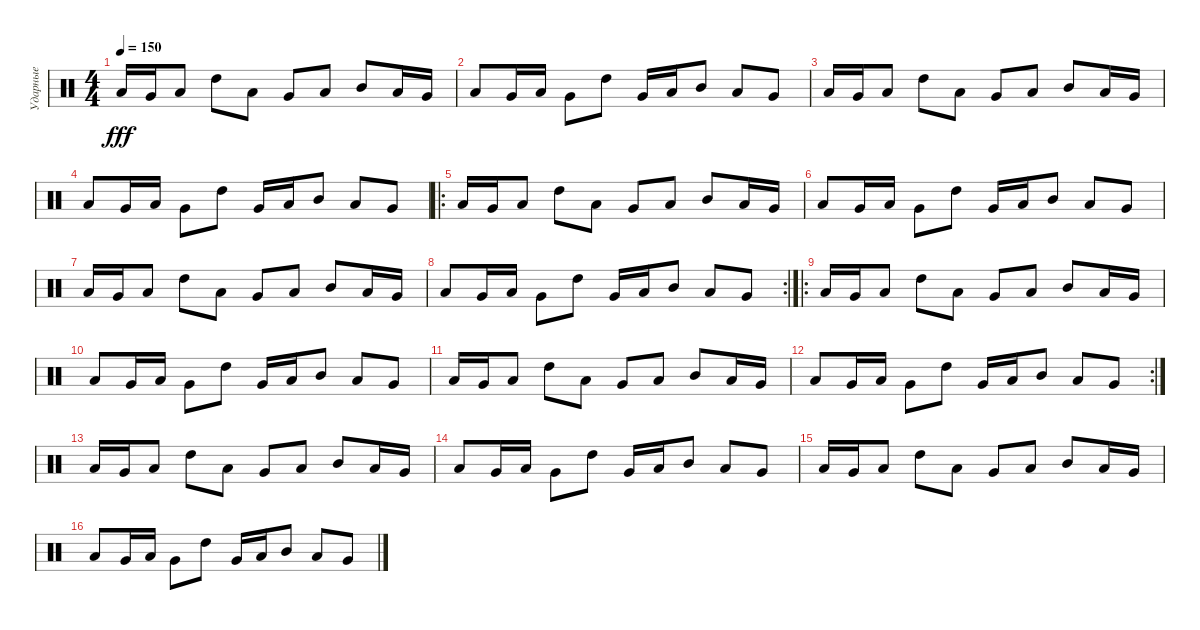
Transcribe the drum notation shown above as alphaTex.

\track ("Ударные" "Ударные") {instrument percussion}
\staff {score}
\articulation defaults
\ts (4 4)
\tempo 150
\clef neutral
\ks c "Low Floor Tom (hit)".16{dy fff} "Very Low Tom (hit)".16 "Low Tom (hit)".8 "High Tom (hit)".8 "Low Tom (hit)".8 "Very Low Tom (hit)".8 "Low Floor Tom (hit)".8 "Mid Tom (hit)".8 "Low Tom (hit)".16 "Very Low Tom (hit)".16
|
"Low Floor Tom (hit)".8 "Very Low Tom (hit)".16 "Low Tom (hit)".16 "Very Low Tom (hit)".8 "High Tom (hit)".8 "Very Low Tom (hit)".16 "Low Floor Tom (hit)".16 "Mid Tom (hit)".8 "Low Tom (hit)".8 "Very Low Tom (hit)".8 |
"Low Floor Tom (hit)".16 "Very Low Tom (hit)".16 "Low Tom (hit)".8 "High Tom (hit)".8 "Low Tom (hit)".8 "Very Low Tom (hit)".8 "Low Floor Tom (hit)".8 "Mid Tom (hit)".8 "Low Tom (hit)".16 "Very Low Tom (hit)".16 |
"Low Floor Tom (hit)".8 "Very Low Tom (hit)".16 "Low Tom (hit)".16 "Very Low Tom (hit)".8 "High Tom (hit)".8 "Very Low Tom (hit)".16 "Low Floor Tom (hit)".16 "Mid Tom (hit)".8 "Low Tom (hit)".8 "Very Low Tom (hit)".8 |
\ro "Low Floor Tom (hit)".16 "Very Low Tom (hit)".16 "Low Tom (hit)".8 "High Tom (hit)".8 "Low Tom (hit)".8 "Very Low Tom (hit)".8 "Low Floor Tom (hit)".8 "Mid Tom (hit)".8 "Low Tom (hit)".16 "Very Low Tom (hit)".16
|
"Low Floor Tom (hit)".8 "Very Low Tom (hit)".16 "Low Tom (hit)".16 "Very Low Tom (hit)".8 "High Tom (hit)".8 "Very Low Tom (hit)".16 "Low Floor Tom (hit)".16 "Mid Tom (hit)".8 "Low Tom (hit)".8 "Very Low Tom (hit)".8 |
"Low Floor Tom (hit)".16 "Very Low Tom (hit)".16 "Low Tom (hit)".8 "High Tom (hit)".8 "Low Tom (hit)".8 "Very Low Tom (hit)".8 "Low Floor Tom (hit)".8 "Mid Tom (hit)".8 "Low Tom (hit)".16 "Very Low Tom (hit)".16 |
\rc 2 "Low Floor Tom (hit)".8 "Very Low Tom (hit)".16 "Low Tom (hit)".16 "Very Low Tom (hit)".8 "High Tom (hit)".8 "Very Low Tom (hit)".16 "Low Floor Tom (hit)".16 "Mid Tom (hit)".8 "Low Tom (hit)".8 "Very Low Tom (hit)".8
|
\ro "Low Floor Tom (hit)".16 "Very Low Tom (hit)".16 "Low Tom (hit)".8 "High Tom (hit)".8 "Low Tom (hit)".8 "Very Low Tom (hit)".8 "Low Floor Tom (hit)".8 "Mid Tom (hit)".8 "Low Tom (hit)".16 "Very Low Tom (hit)".16
|
"Low Floor Tom (hit)".8 "Very Low Tom (hit)".16 "Low Tom (hit)".16 "Very Low Tom (hit)".8 "High Tom (hit)".8 "Very Low Tom (hit)".16 "Low Floor Tom (hit)".16 "Mid Tom (hit)".8 "Low Tom (hit)".8 "Very Low Tom (hit)".8 |
"Low Floor Tom (hit)".16 "Very Low Tom (hit)".16 "Low Tom (hit)".8 "High Tom (hit)".8 "Low Tom (hit)".8 "Very Low Tom (hit)".8 "Low Floor Tom (hit)".8 "Mid Tom (hit)".8 "Low Tom (hit)".16 "Very Low Tom (hit)".16 |
\rc 2 "Low Floor Tom (hit)".8 "Very Low Tom (hit)".16 "Low Tom (hit)".16 "Very Low Tom (hit)".8 "High Tom (hit)".8 "Very Low Tom (hit)".16 "Low Floor Tom (hit)".16 "Mid Tom (hit)".8 "Low Tom (hit)".8 "Very Low Tom (hit)".8
|
"Low Floor Tom (hit)".16 "Very Low Tom (hit)".16 "Low Tom (hit)".8 "High Tom (hit)".8 "Low Tom (hit)".8 "Very Low Tom (hit)".8 "Low Floor Tom (hit)".8 "Mid Tom (hit)".8 "Low Tom (hit)".16 "Very Low Tom (hit)".16 |
"Low Floor Tom (hit)".8 "Very Low Tom (hit)".16 "Low Tom (hit)".16 "Very Low Tom (hit)".8 "High Tom (hit)".8 "Very Low Tom (hit)".16 "Low Floor Tom (hit)".16 "Mid Tom (hit)".8 "Low Tom (hit)".8 "Very Low Tom (hit)".8 |
"Low Floor Tom (hit)".16 "Very Low Tom (hit)".16 "Low Tom (hit)".8 "High Tom (hit)".8 "Low Tom (hit)".8 "Very Low Tom (hit)".8 "Low Floor Tom (hit)".8 "Mid Tom (hit)".8 "Low Tom (hit)".16 "Very Low Tom (hit)".16 |
"Low Floor Tom (hit)".8 "Very Low Tom (hit)".16 "Low Tom (hit)".16 "Very Low Tom (hit)".8 "High Tom (hit)".8 "Very Low Tom (hit)".16 "Low Floor Tom (hit)".16 "Mid Tom (hit)".8 "Low Tom (hit)".8 "Very Low Tom (hit)".8
